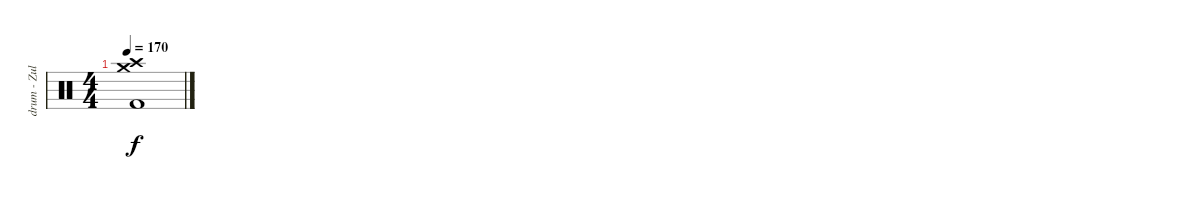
\track ("drum - Zul ???" "drum - Zul") {instrument percussion}
\staff {score}
\articulation defaults
\ts (4 4)
\tempo 170
\clef neutral
\ks c
("Crash medium (hit)" "Crash high (hit)" "Kick (hit) 2").1{dy f}
